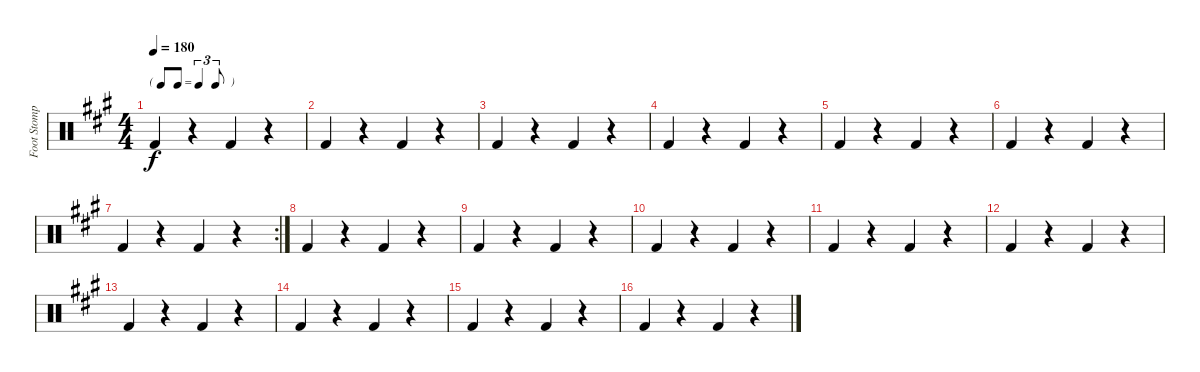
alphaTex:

\track ("Foot Stomp" "Foot Stomp") {instrument percussion}
\staff {score}
\articulation defaults
\ts (4 4)
\tf triplet8th
\tempo 180
\clef neutral
\ks a "Kick (hit) 2".4{dy f}
r.4 "Kick (hit) 2".4 r.4 |
"Kick (hit) 2".4 r.4 "Kick (hit) 2".4 r.4 |
"Kick (hit) 2".4 r.4 "Kick (hit) 2".4 r.4 |
"Kick (hit) 2".4 r.4 "Kick (hit) 2".4 r.4 |
"Kick (hit) 2".4 r.4 "Kick (hit) 2".4 r.4 |
"Kick (hit) 2".4 r.4 "Kick (hit) 2".4 r.4 |
\rc 2 "Kick (hit) 2".4
r.4 "Kick (hit) 2".4 r.4 |
"Kick (hit) 2".4 r.4 "Kick (hit) 2".4 r.4 |
"Kick (hit) 2".4 r.4 "Kick (hit) 2".4 r.4 |
"Kick (hit) 2".4 r.4 "Kick (hit) 2".4 r.4 |
"Kick (hit) 2".4 r.4 "Kick (hit) 2".4 r.4 |
"Kick (hit) 2".4 r.4 "Kick (hit) 2".4 r.4 |
"Kick (hit) 2".4 r.4 "Kick (hit) 2".4 r.4 |
"Kick (hit) 2".4 r.4 "Kick (hit) 2".4 r.4 |
"Kick (hit) 2".4 r.4 "Kick (hit) 2".4 r.4 |
"Kick (hit) 2".4 r.4 "Kick (hit) 2".4 r.4
